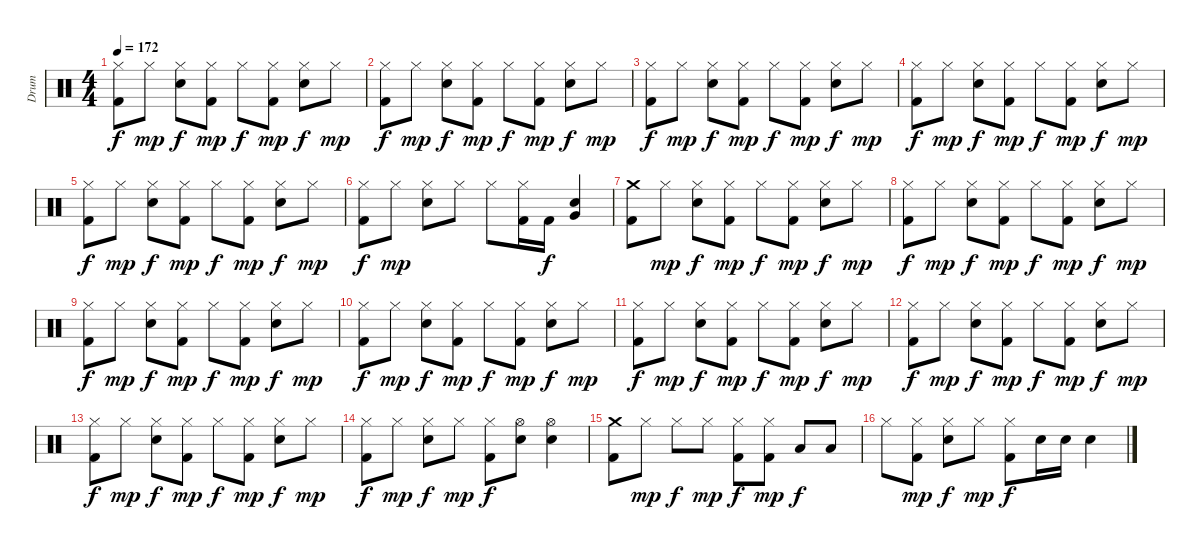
\track ("Drum" "Drum") {instrument percussion}
\staff {score}
\articulation defaults
\ts (4 4)
\tempo 172
\clef neutral
\ks c
("Hi-Hat (closed)" "Kick (hit) 2").8{dy f} "Hi-Hat (closed)".8{dy mp} ("Hi-Hat (closed)" "Electric Snare (hit)").8{dy f} ("Hi-Hat (closed)" "Kick (hit) 2").8{dy mp} "Hi-Hat (closed)".8{dy f} ("Hi-Hat (closed)" "Kick (hit) 2").8{dy mp} ("Hi-Hat (closed)" "Electric Snare (hit)").8{dy f} "Hi-Hat (closed)".8{dy mp} |
("Hi-Hat (closed)" "Kick (hit) 2").8{dy f} "Hi-Hat (closed)".8{dy mp} ("Hi-Hat (closed)" "Electric Snare (hit)").8{dy f} ("Hi-Hat (closed)" "Kick (hit) 2").8{dy mp} "Hi-Hat (closed)".8{dy f} ("Hi-Hat (closed)" "Kick (hit) 2").8{dy mp} ("Hi-Hat (closed)" "Electric Snare (hit)").8{dy f} "Hi-Hat (closed)".8{dy mp} |
("Hi-Hat (closed)" "Kick (hit) 2").8{dy f} "Hi-Hat (closed)".8{dy mp} ("Hi-Hat (closed)" "Electric Snare (hit)").8{dy f} ("Hi-Hat (closed)" "Kick (hit) 2").8{dy mp} "Hi-Hat (closed)".8{dy f} ("Hi-Hat (closed)" "Kick (hit) 2").8{dy mp} ("Hi-Hat (closed)" "Electric Snare (hit)").8{dy f} "Hi-Hat (closed)".8{dy mp} |
("Hi-Hat (closed)" "Kick (hit) 2").8{dy f} "Hi-Hat (closed)".8{dy mp} ("Hi-Hat (closed)" "Electric Snare (hit)").8{dy f} ("Hi-Hat (closed)" "Kick (hit) 2").8{dy mp} "Hi-Hat (closed)".8{dy f} ("Hi-Hat (closed)" "Kick (hit) 2").8{dy mp} ("Hi-Hat (closed)" "Electric Snare (hit)").8{dy f} "Hi-Hat (closed)".8{dy mp} |
("Hi-Hat (closed)" "Kick (hit) 2").8{dy f} "Hi-Hat (closed)".8{dy mp} ("Hi-Hat (closed)" "Electric Snare (hit)").8{dy f} ("Hi-Hat (closed)" "Kick (hit) 2").8{dy mp} "Hi-Hat (closed)".8{dy f} ("Hi-Hat (closed)" "Kick (hit) 2").8{dy mp} ("Hi-Hat (closed)" "Electric Snare (hit)").8{dy f} "Hi-Hat (closed)".8{dy mp} |
("Hi-Hat (closed)" "Kick (hit) 2").8{dy f} "Hi-Hat (closed)".8{dy mp} ("Hi-Hat (closed)" "Electric Snare (hit)").8 "Hi-Hat (closed)".8 "Hi-Hat (closed)".8 ("Hi-Hat (closed)" "Kick (hit) 2").16 "Kick (hit) 2".16{dy f} ("Electric Snare (hit)" "Very Low Tom (hit)").4 |
("Crash medium (hit)" "Kick (hit) 2").8 "Hi-Hat (closed)".8{dy mp} ("Hi-Hat (closed)" "Electric Snare (hit)").8{dy f} ("Hi-Hat (closed)" "Kick (hit) 2").8{dy mp} "Hi-Hat (closed)".8{dy f} ("Hi-Hat (closed)" "Kick (hit) 2").8{dy mp} ("Hi-Hat (closed)" "Electric Snare (hit)").8{dy f} "Hi-Hat (closed)".8{dy mp} |
("Hi-Hat (closed)" "Kick (hit) 2").8{dy f} "Hi-Hat (closed)".8{dy mp} ("Hi-Hat (closed)" "Electric Snare (hit)").8{dy f} ("Hi-Hat (closed)" "Kick (hit) 2").8{dy mp} "Hi-Hat (closed)".8{dy f} ("Hi-Hat (closed)" "Kick (hit) 2").8{dy mp} ("Hi-Hat (closed)" "Electric Snare (hit)").8{dy f} "Hi-Hat (closed)".8{dy mp} |
("Hi-Hat (closed)" "Kick (hit) 2").8{dy f} "Hi-Hat (closed)".8{dy mp} ("Hi-Hat (closed)" "Electric Snare (hit)").8{dy f} ("Hi-Hat (closed)" "Kick (hit) 2").8{dy mp} "Hi-Hat (closed)".8{dy f} ("Hi-Hat (closed)" "Kick (hit) 2").8{dy mp} ("Hi-Hat (closed)" "Electric Snare (hit)").8{dy f} "Hi-Hat (closed)".8{dy mp} |
("Hi-Hat (closed)" "Kick (hit) 2").8{dy f} "Hi-Hat (closed)".8{dy mp} ("Hi-Hat (closed)" "Electric Snare (hit)").8{dy f} ("Hi-Hat (closed)" "Kick (hit) 2").8{dy mp} "Hi-Hat (closed)".8{dy f} ("Hi-Hat (closed)" "Kick (hit) 2").8{dy mp} ("Hi-Hat (closed)" "Electric Snare (hit)").8{dy f} "Hi-Hat (closed)".8{dy mp} |
("Hi-Hat (closed)" "Kick (hit) 2").8{dy f} "Hi-Hat (closed)".8{dy mp} ("Hi-Hat (closed)" "Electric Snare (hit)").8{dy f} ("Hi-Hat (closed)" "Kick (hit) 2").8{dy mp} "Hi-Hat (closed)".8{dy f} ("Hi-Hat (closed)" "Kick (hit) 2").8{dy mp} ("Hi-Hat (closed)" "Electric Snare (hit)").8{dy f} "Hi-Hat (closed)".8{dy mp} |
("Hi-Hat (closed)" "Kick (hit) 2").8{dy f} "Hi-Hat (closed)".8{dy mp} ("Hi-Hat (closed)" "Electric Snare (hit)").8{dy f} ("Hi-Hat (closed)" "Kick (hit) 2").8{dy mp} "Hi-Hat (closed)".8{dy f} ("Hi-Hat (closed)" "Kick (hit) 2").8{dy mp} ("Hi-Hat (closed)" "Electric Snare (hit)").8{dy f} "Hi-Hat (closed)".8{dy mp} |
("Hi-Hat (closed)" "Kick (hit) 2").8{dy f} "Hi-Hat (closed)".8{dy mp} ("Hi-Hat (closed)" "Electric Snare (hit)").8{dy f} ("Hi-Hat (closed)" "Kick (hit) 2").8{dy mp} "Hi-Hat (closed)".8{dy f} ("Hi-Hat (closed)" "Kick (hit) 2").8{dy mp} ("Hi-Hat (closed)" "Electric Snare (hit)").8{dy f} "Hi-Hat (closed)".8{dy mp} |
("Hi-Hat (closed)" "Kick (hit) 2").8{dy f} "Hi-Hat (closed)".8{dy mp} ("Hi-Hat (closed)" "Electric Snare (hit)").8{dy f} "Hi-Hat (closed)".8{dy mp} ("Hi-Hat (closed)" "Kick (hit) 2").8{dy f} ("Hi-Hat (open)" "Electric Snare (hit)").8 ("Hi-Hat (open)" "Electric Snare (hit)").4 |
("Crash medium (hit)" "Kick (hit) 2").8 "Hi-Hat (closed)".8{dy mp} "Hi-Hat (closed)".8{dy f} "Hi-Hat (closed)".8{dy mp} ("Hi-Hat (closed)" "Kick (hit) 2").8{dy f} ("Hi-Hat (closed)" "Kick (hit) 2").8{dy mp} "Low Tom (hit)".8{dy f} "Low Tom (hit)".8 |
"Hi-Hat (closed)".8 ("Hi-Hat (closed)" "Kick (hit) 2").8{dy mp} ("Hi-Hat (closed)" "Electric Snare (hit)").8{dy f} "Hi-Hat (closed)".8{dy mp} ("Hi-Hat (closed)" "Kick (hit) 2").8{dy f} "Electric Snare (hit)".16 "Electric Snare (hit)".16 "Electric Snare (hit)".4
